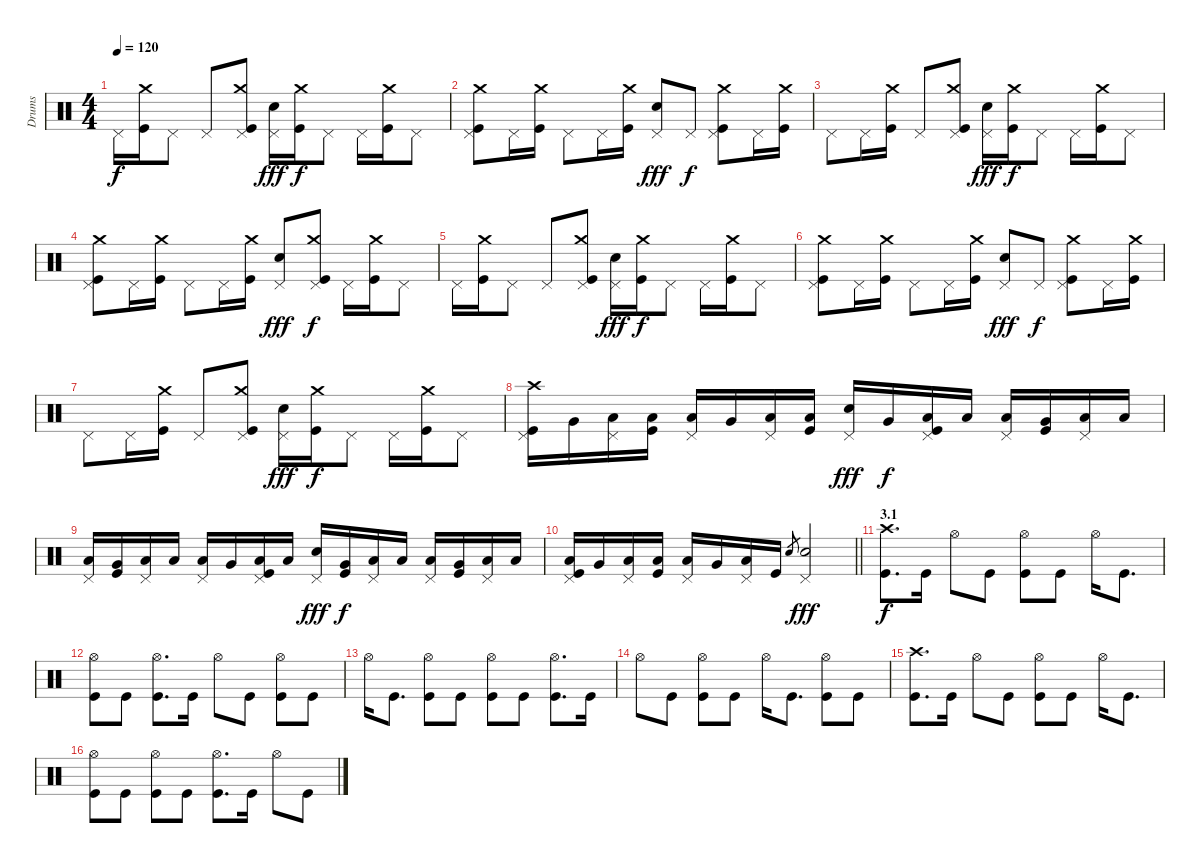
\track ("Drums" "Drums") {instrument percussion}
\staff {score}
\articulation defaults
\ts (4 4)
\tempo 120
\clef neutral
\ks c "Pedal Hi-Hat (hit)".16{dy f}
("Crash medium (hit)" "Kick (hit)").16 "Pedal Hi-Hat (hit)".8 "Pedal Hi-Hat (hit)".8 ("Crash medium (hit)" "Pedal Hi-Hat (hit)" "Kick (hit)").8 ("Pedal Hi-Hat (hit)" "Snare (hit) 2").16{dy fff} ("Crash medium (hit)" "Kick (hit)").16{dy f} "Pedal Hi-Hat (hit)".8 "Pedal Hi-Hat (hit)".16 ("Crash medium (hit)" "Kick (hit)").16 "Pedal Hi-Hat (hit)".8 |
("Crash medium (hit)" "Pedal Hi-Hat (hit)" "Kick (hit)").8 "Pedal Hi-Hat (hit)".16 ("Crash medium (hit)" "Kick (hit)").16 "Pedal Hi-Hat (hit)".8 "Pedal Hi-Hat (hit)".16 ("Crash medium (hit)" "Kick (hit)").16 ("Pedal Hi-Hat (hit)" "Snare (hit) 2").8{dy fff} "Pedal Hi-Hat (hit)".8{dy f} ("Crash medium (hit)" "Pedal Hi-Hat (hit)" "Kick (hit)").8 "Pedal Hi-Hat (hit)".16 ("Crash medium (hit)" "Kick (hit)").16 |
"Pedal Hi-Hat (hit)".8 "Pedal Hi-Hat (hit)".16 ("Crash medium (hit)" "Kick (hit)").16 "Pedal Hi-Hat (hit)".8 ("Crash medium (hit)" "Pedal Hi-Hat (hit)" "Kick (hit)").8 ("Pedal Hi-Hat (hit)" "Snare (hit) 2").16{dy fff} ("Crash medium (hit)" "Kick (hit)").16{dy f} "Pedal Hi-Hat (hit)".8 "Pedal Hi-Hat (hit)".16 ("Crash medium (hit)" "Kick (hit)").16 "Pedal Hi-Hat (hit)".8 |
("Crash medium (hit)" "Pedal Hi-Hat (hit)" "Kick (hit)").8 "Pedal Hi-Hat (hit)".16 ("Crash medium (hit)" "Kick (hit)").16 "Pedal Hi-Hat (hit)".8 "Pedal Hi-Hat (hit)".16 ("Crash medium (hit)" "Kick (hit)").16 ("Pedal Hi-Hat (hit)" "Snare (hit) 2").8{dy fff} ("Crash medium (hit)" "Pedal Hi-Hat (hit)" "Kick (hit)").8{dy f} "Pedal Hi-Hat (hit)".16 ("Crash medium (hit)" "Kick (hit)").16 "Pedal Hi-Hat (hit)".8 |
"Pedal Hi-Hat (hit)".16 ("Crash medium (hit)" "Kick (hit)").16 "Pedal Hi-Hat (hit)".8 "Pedal Hi-Hat (hit)".8 ("Crash medium (hit)" "Pedal Hi-Hat (hit)" "Kick (hit)").8 ("Pedal Hi-Hat (hit)" "Snare (hit) 2").16{dy fff} ("Crash medium (hit)" "Kick (hit)").16{dy f} "Pedal Hi-Hat (hit)".8 "Pedal Hi-Hat (hit)".16 ("Crash medium (hit)" "Kick (hit)").16 "Pedal Hi-Hat (hit)".8 |
("Crash medium (hit)" "Pedal Hi-Hat (hit)" "Kick (hit)").8 "Pedal Hi-Hat (hit)".16 ("Crash medium (hit)" "Kick (hit)").16 "Pedal Hi-Hat (hit)".8 "Pedal Hi-Hat (hit)".16 ("Crash medium (hit)" "Kick (hit)").16 ("Pedal Hi-Hat (hit)" "Snare (hit) 2").8{dy fff} "Pedal Hi-Hat (hit)".8{dy f} ("Crash medium (hit)" "Pedal Hi-Hat (hit)" "Kick (hit)").8 "Pedal Hi-Hat (hit)".16 ("Crash medium (hit)" "Kick (hit)").16 |
"Pedal Hi-Hat (hit)".8 "Pedal Hi-Hat (hit)".16 ("Crash medium (hit)" "Kick (hit)").16 "Pedal Hi-Hat (hit)".8 ("Crash medium (hit)" "Pedal Hi-Hat (hit)" "Kick (hit)").8 ("Pedal Hi-Hat (hit)" "Snare (hit) 2").16{dy fff} ("Crash medium (hit)" "Kick (hit)").16{dy f} "Pedal Hi-Hat (hit)".8 "Pedal Hi-Hat (hit)".16 ("Crash medium (hit)" "Kick (hit)").16 "Pedal Hi-Hat (hit)".8 |
("Crash high (hit)" "Pedal Hi-Hat (hit)" "Kick (hit)").16 "Very Low Tom (hit)".16 ("Pedal Hi-Hat (hit)" "Low Floor Tom (hit)").16 ("Low Tom (hit)" "Kick (hit)").16 ("Pedal Hi-Hat (hit)" "Low Tom (hit)").16 "Very Low Tom (hit)".16 ("Pedal Hi-Hat (hit)" "Low Floor Tom (hit)").16 ("Low Tom (hit)" "Kick (hit)").16 ("Pedal Hi-Hat (hit)" "Snare (hit) 2").16{dy fff} "Very Low Tom (hit)".16{dy f} ("Pedal Hi-Hat (hit)" "Low Floor Tom (hit)" "Kick (hit)").16 "Low Tom (hit)".16 ("Pedal Hi-Hat (hit)" "Low Tom (hit)").16 ("Very Low Tom (hit)" "Kick (hit)").16 ("Pedal Hi-Hat (hit)" "Low Floor Tom (hit)").16 "Low Tom (hit)".16 |
("Pedal Hi-Hat (hit)" "Low Tom (hit)").16 ("Very Low Tom (hit)" "Kick (hit)").16 ("Pedal Hi-Hat (hit)" "Low Floor Tom (hit)").16 "Low Tom (hit)".16 ("Pedal Hi-Hat (hit)" "Low Tom (hit)").16 "Very Low Tom (hit)".16 ("Pedal Hi-Hat (hit)" "Low Floor Tom (hit)" "Kick (hit)").16 "Low Tom (hit)".16 ("Pedal Hi-Hat (hit)" "Snare (hit) 2").16{dy fff} ("Very Low Tom (hit)" "Kick (hit)").16{dy f} ("Pedal Hi-Hat (hit)" "Low Floor Tom (hit)").16 "Low Tom (hit)".16 ("Pedal Hi-Hat (hit)" "Low Tom (hit)").16 ("Very Low Tom (hit)" "Kick (hit)").16 ("Pedal Hi-Hat (hit)" "Low Floor Tom (hit)").16 "Low Tom (hit)".16 |
\barLineRight lightlight
("Pedal Hi-Hat (hit)" "Low Tom (hit)" "Kick (hit)").16 "Very Low Tom (hit)".16 ("Pedal Hi-Hat (hit)" "Low Floor Tom (hit)").16 ("Low Tom (hit)" "Kick (hit)").16 ("Pedal Hi-Hat (hit)" "Low Tom (hit)").16 "Very Low Tom (hit)".16 ("Pedal Hi-Hat (hit)" "Low Floor Tom (hit)").16 "Kick (hit)".16 "Snare (hit) 2".8{gr} ("Pedal Hi-Hat (hit)" "Snare (hit) 2").2{dy fff} |
\section ("" "3.1")
("Crash high (hit)" "Kick (hit)").8{d dy f} "Kick (hit)".16 "Hi-Hat (open)".8 "Kick (hit)".8 ("Hi-Hat (open)" "Kick (hit)").8 "Kick (hit)".8 "Hi-Hat (open)".16 "Kick (hit)".8{d} |
("Hi-Hat (open)" "Kick (hit)").8 "Kick (hit)".8 ("Hi-Hat (open)" "Kick (hit)").8{d} "Kick (hit)".16 "Hi-Hat (open)".8 "Kick (hit)".8 ("Hi-Hat (open)" "Kick (hit)").8 "Kick (hit)".8 |
"Hi-Hat (open)".16 "Kick (hit)".8{d} ("Hi-Hat (open)" "Kick (hit)").8 "Kick (hit)".8 ("Hi-Hat (open)" "Kick (hit)").8 "Kick (hit)".8 ("Hi-Hat (open)" "Kick (hit)").8{d} "Kick (hit)".16 |
"Hi-Hat (open)".8 "Kick (hit)".8 ("Hi-Hat (open)" "Kick (hit)").8 "Kick (hit)".8 "Hi-Hat (open)".16 "Kick (hit)".8{d} ("Hi-Hat (open)" "Kick (hit)").8 "Kick (hit)".8 |
("Crash high (hit)" "Kick (hit)").8{d} "Kick (hit)".16 "Hi-Hat (open)".8 "Kick (hit)".8 ("Hi-Hat (open)" "Kick (hit)").8 "Kick (hit)".8 "Hi-Hat (open)".16 "Kick (hit)".8{d} |
("Hi-Hat (open)" "Kick (hit)").8 "Kick (hit)".8 ("Hi-Hat (open)" "Kick (hit)").8 "Kick (hit)".8 ("Hi-Hat (open)" "Kick (hit)").8{d} "Kick (hit)".16 "Hi-Hat (open)".8 "Kick (hit)".8
